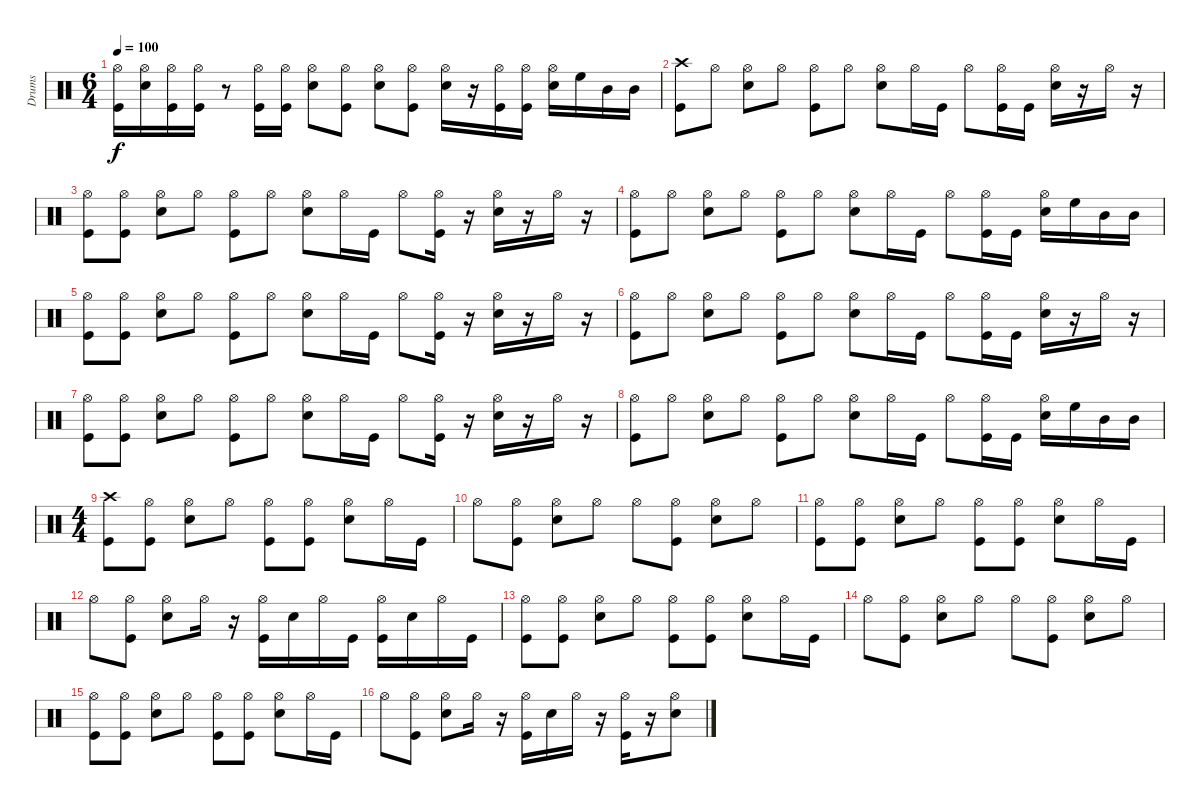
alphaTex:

\track ("Drums" "Drums") {instrument percussion}
\staff {score}
\articulation defaults
\ts (6 4)
\tempo 100
\clef neutral
\ks c
("Kick (hit)" "Hi-Hat (open)").16{dy f} ("Electric Snare (hit)" "Hi-Hat (open)").16 ("Kick (hit)" "Hi-Hat (open)").16 ("Kick (hit)" "Hi-Hat (open)").16 r.8 ("Kick (hit)" "Hi-Hat (open)").16 ("Kick (hit)" "Hi-Hat (open)").16 ("Electric Snare (hit)" "Hi-Hat (open)").8 ("Kick (hit)" "Hi-Hat (open)").8 ("Electric Snare (hit)" "Hi-Hat (open)").8 ("Kick (hit)" "Hi-Hat (open)").8 ("Electric Snare (hit)" "Hi-Hat (open)").16 r.16 ("Kick (hit)" "Hi-Hat (open)").16 ("Kick (hit)" "Hi-Hat (open)").16 ("Electric Snare (hit)" "Hi-Hat (open)").16 "High Floor Tom (hit)".16 "Mid Tom (hit)".16 "Mid Tom (hit)".16 |
("Kick (hit)" "Crash high (hit)").8 "Hi-Hat (open)".8 ("Electric Snare (hit)" "Hi-Hat (open)").8 "Hi-Hat (open)".8 ("Kick (hit)" "Hi-Hat (open)").8 "Hi-Hat (open)".8 ("Electric Snare (hit)" "Hi-Hat (open)").8 "Hi-Hat (open)".16 "Kick (hit)".16 "Hi-Hat (open)".8 ("Kick (hit)" "Hi-Hat (open)").16 "Kick (hit)".16 ("Electric Snare (hit)" "Hi-Hat (open)").16 r.16 "Hi-Hat (open)".16 r.16 |
("Kick (hit)" "Hi-Hat (open)").8 ("Kick (hit)" "Hi-Hat (open)").8 ("Electric Snare (hit)" "Hi-Hat (open)").8 "Hi-Hat (open)".8 ("Kick (hit)" "Hi-Hat (open)").8 "Hi-Hat (open)".8 ("Electric Snare (hit)" "Hi-Hat (open)").8 "Hi-Hat (open)".16 "Kick (hit)".16 "Hi-Hat (open)".8 ("Kick (hit)" "Hi-Hat (open)").16 r.16 ("Electric Snare (hit)" "Hi-Hat (open)").16 r.16 "Hi-Hat (open)".16 r.16 |
("Kick (hit)" "Hi-Hat (open)").8 "Hi-Hat (open)".8 ("Electric Snare (hit)" "Hi-Hat (open)").8 "Hi-Hat (open)".8 ("Kick (hit)" "Hi-Hat (open)").8 "Hi-Hat (open)".8 ("Electric Snare (hit)" "Hi-Hat (open)").8 "Hi-Hat (open)".16 "Kick (hit)".16 "Hi-Hat (open)".8 ("Kick (hit)" "Hi-Hat (open)").16 "Kick (hit)".16 ("Electric Snare (hit)" "Hi-Hat (open)").16 "High Floor Tom (hit)".16 "Mid Tom (hit)".16 "Mid Tom (hit)".16 |
("Kick (hit)" "Hi-Hat (open)").8 ("Kick (hit)" "Hi-Hat (open)").8 ("Electric Snare (hit)" "Hi-Hat (open)").8 "Hi-Hat (open)".8 ("Kick (hit)" "Hi-Hat (open)").8 "Hi-Hat (open)".8 ("Electric Snare (hit)" "Hi-Hat (open)").8 "Hi-Hat (open)".16 "Kick (hit)".16 "Hi-Hat (open)".8 ("Kick (hit)" "Hi-Hat (open)").16 r.16 ("Electric Snare (hit)" "Hi-Hat (open)").16 r.16 "Hi-Hat (open)".16 r.16 |
("Kick (hit)" "Hi-Hat (open)").8 "Hi-Hat (open)".8 ("Electric Snare (hit)" "Hi-Hat (open)").8 "Hi-Hat (open)".8 ("Kick (hit)" "Hi-Hat (open)").8 "Hi-Hat (open)".8 ("Electric Snare (hit)" "Hi-Hat (open)").8 "Hi-Hat (open)".16 "Kick (hit)".16 "Hi-Hat (open)".8 ("Kick (hit)" "Hi-Hat (open)").16 "Kick (hit)".16 ("Electric Snare (hit)" "Hi-Hat (open)").16 r.16 "Hi-Hat (open)".16 r.16 |
("Kick (hit)" "Hi-Hat (open)").8 ("Kick (hit)" "Hi-Hat (open)").8 ("Electric Snare (hit)" "Hi-Hat (open)").8 "Hi-Hat (open)".8 ("Kick (hit)" "Hi-Hat (open)").8 "Hi-Hat (open)".8 ("Electric Snare (hit)" "Hi-Hat (open)").8 "Hi-Hat (open)".16 "Kick (hit)".16 "Hi-Hat (open)".8 ("Kick (hit)" "Hi-Hat (open)").16 r.16 ("Electric Snare (hit)" "Hi-Hat (open)").16 r.16 "Hi-Hat (open)".16 r.16 |
("Kick (hit)" "Hi-Hat (open)").8 "Hi-Hat (open)".8 ("Electric Snare (hit)" "Hi-Hat (open)").8 "Hi-Hat (open)".8 ("Kick (hit)" "Hi-Hat (open)").8 "Hi-Hat (open)".8 ("Electric Snare (hit)" "Hi-Hat (open)").8 "Hi-Hat (open)".16 "Kick (hit)".16 "Hi-Hat (open)".8 ("Kick (hit)" "Hi-Hat (open)").16 "Kick (hit)".16 ("Electric Snare (hit)" "Hi-Hat (open)").16 "High Floor Tom (hit)".16 "Mid Tom (hit)".16 "Mid Tom (hit)".16 |
\ts (4 4)
("Kick (hit)" "Crash high (hit)").8 ("Kick (hit)" "Hi-Hat (open)").8 ("Electric Snare (hit)" "Hi-Hat (open)").8 "Hi-Hat (open)".8 ("Kick (hit)" "Hi-Hat (open)").8 ("Kick (hit)" "Hi-Hat (open)").8 ("Electric Snare (hit)" "Hi-Hat (open)").8 "Hi-Hat (open)".16 "Kick (hit)".16 |
"Hi-Hat (open)".8 ("Kick (hit)" "Hi-Hat (open)").8 ("Electric Snare (hit)" "Hi-Hat (open)").8 "Hi-Hat (open)".8 "Hi-Hat (open)".8 ("Kick (hit)" "Hi-Hat (open)").8 ("Electric Snare (hit)" "Hi-Hat (open)").8 "Hi-Hat (open)".8 |
("Kick (hit)" "Hi-Hat (open)").8 ("Kick (hit)" "Hi-Hat (open)").8 ("Electric Snare (hit)" "Hi-Hat (open)").8 "Hi-Hat (open)".8 ("Kick (hit)" "Hi-Hat (open)").8 ("Kick (hit)" "Hi-Hat (open)").8 ("Electric Snare (hit)" "Hi-Hat (open)").8 "Hi-Hat (open)".16 "Kick (hit)".16 |
"Hi-Hat (open)".8 ("Kick (hit)" "Hi-Hat (open)").8 ("Electric Snare (hit)" "Hi-Hat (open)").8 "Hi-Hat (open)".16 r.16 ("Kick (hit)" "Hi-Hat (open)").16 "Electric Snare (hit)".16 "Hi-Hat (open)".16 "Kick (hit)".16 ("Kick (hit)" "Hi-Hat (open)").16 "Electric Snare (hit)".16 "Hi-Hat (open)".16 "Kick (hit)".16 |
("Kick (hit)" "Hi-Hat (open)").8 ("Kick (hit)" "Hi-Hat (open)").8 ("Electric Snare (hit)" "Hi-Hat (open)").8 "Hi-Hat (open)".8 ("Kick (hit)" "Hi-Hat (open)").8 ("Kick (hit)" "Hi-Hat (open)").8 ("Electric Snare (hit)" "Hi-Hat (open)").8 "Hi-Hat (open)".16 "Kick (hit)".16 |
"Hi-Hat (open)".8 ("Kick (hit)" "Hi-Hat (open)").8 ("Electric Snare (hit)" "Hi-Hat (open)").8 "Hi-Hat (open)".8 "Hi-Hat (open)".8 ("Kick (hit)" "Hi-Hat (open)").8 ("Electric Snare (hit)" "Hi-Hat (open)").8 "Hi-Hat (open)".8 |
("Kick (hit)" "Hi-Hat (open)").8 ("Kick (hit)" "Hi-Hat (open)").8 ("Electric Snare (hit)" "Hi-Hat (open)").8 "Hi-Hat (open)".8 ("Kick (hit)" "Hi-Hat (open)").8 ("Kick (hit)" "Hi-Hat (open)").8 ("Electric Snare (hit)" "Hi-Hat (open)").8 "Hi-Hat (open)".16 "Kick (hit)".16 |
"Hi-Hat (open)".8 ("Kick (hit)" "Hi-Hat (open)").8 ("Electric Snare (hit)" "Hi-Hat (open)").8 "Hi-Hat (open)".16 r.16 ("Kick (hit)" "Hi-Hat (open)").16 "Electric Snare (hit)".16 "Hi-Hat (open)".16 r.16 ("Kick (hit)" "Hi-Hat (open)").16 r.16 ("Electric Snare (hit)" "Hi-Hat (open)").8
